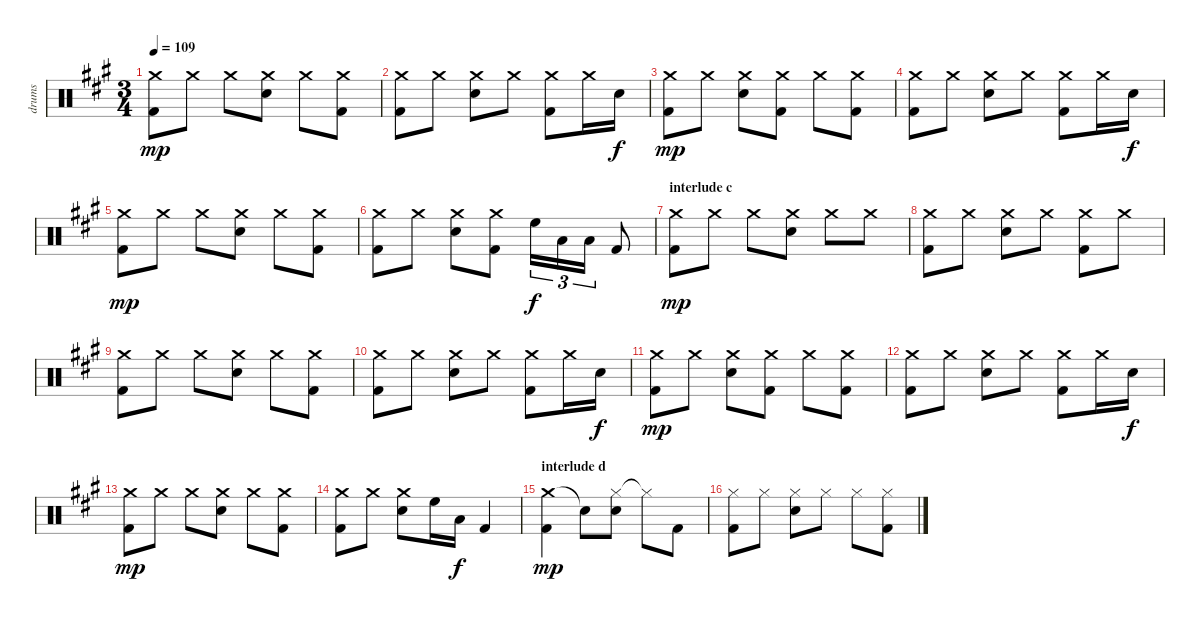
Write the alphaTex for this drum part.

\track ("drums" "drums") {instrument percussion}
\staff {score}
\articulation defaults
\ts (3 4)
\tempo 109
\clef neutral
\ks a
("Crash medium (hit)" "Kick (hit) 2").8{dy mp} "Crash medium (hit)".8 "Crash medium (hit)".8 ("Crash medium (hit)" "Snare (hit) 2").8 "Crash medium (hit)".8 ("Crash medium (hit)" "Kick (hit) 2").8 |
("Crash medium (hit)" "Kick (hit) 2").8 "Crash medium (hit)".8 ("Crash medium (hit)" "Snare (hit) 2").8 "Crash medium (hit)".8 ("Crash medium (hit)" "Kick (hit) 2").8 "Crash medium (hit)".16 "Snare (hit) 2".16{dy f} |
("Crash medium (hit)" "Kick (hit) 2").8{dy mp} "Crash medium (hit)".8 ("Crash medium (hit)" "Snare (hit) 2").8 ("Crash medium (hit)" "Kick (hit) 2").8 "Crash medium (hit)".8 ("Crash medium (hit)" "Kick (hit) 2").8 |
("Crash medium (hit)" "Kick (hit) 2").8 "Crash medium (hit)".8 ("Crash medium (hit)" "Snare (hit) 2").8 "Crash medium (hit)".8 ("Crash medium (hit)" "Kick (hit) 2").8 "Crash medium (hit)".16 "Snare (hit) 2".16{dy f} |
("Crash medium (hit)" "Kick (hit) 2").8{dy mp} "Crash medium (hit)".8 "Crash medium (hit)".8 ("Crash medium (hit)" "Snare (hit) 2").8 "Crash medium (hit)".8 ("Crash medium (hit)" "Kick (hit) 2").8 |
("Crash medium (hit)" "Kick (hit) 2").8 "Crash medium (hit)".8 ("Crash medium (hit)" "Snare (hit) 2").8 ("Crash medium (hit)" "Kick (hit) 2").8 "High Floor Tom (hit)".16{tu (3 2) dy f} "Low Tom (hit)".16{tu (3 2)} "Low Tom (hit)".16{tu (3 2)} "Kick (hit) 2".8 |
\section ("" "interlude c")
("Crash medium (hit)" "Kick (hit) 2").8{dy mp} "Crash medium (hit)".8 "Crash medium (hit)".8 ("Crash medium (hit)" "Snare (hit) 2").8 "Crash medium (hit)".8 "Crash medium (hit)".8 |
("Crash medium (hit)" "Kick (hit) 2").8 "Crash medium (hit)".8 ("Crash medium (hit)" "Snare (hit) 2").8 "Crash medium (hit)".8 ("Crash medium (hit)" "Kick (hit) 2").8 "Crash medium (hit)".8 |
("Crash medium (hit)" "Kick (hit) 2").8 "Crash medium (hit)".8 "Crash medium (hit)".8 ("Crash medium (hit)" "Snare (hit) 2").8 "Crash medium (hit)".8 ("Crash medium (hit)" "Kick (hit) 2").8 |
("Crash medium (hit)" "Kick (hit) 2").8 "Crash medium (hit)".8 ("Crash medium (hit)" "Snare (hit) 2").8 "Crash medium (hit)".8 ("Crash medium (hit)" "Kick (hit) 2").8 "Crash medium (hit)".16 "Snare (hit) 2".16{dy f} |
("Crash medium (hit)" "Kick (hit) 2").8{dy mp} "Crash medium (hit)".8 ("Crash medium (hit)" "Snare (hit) 2").8 ("Crash medium (hit)" "Kick (hit) 2").8 "Crash medium (hit)".8 ("Crash medium (hit)" "Kick (hit) 2").8 |
("Crash medium (hit)" "Kick (hit) 2").8 "Crash medium (hit)".8 ("Crash medium (hit)" "Snare (hit) 2").8 "Crash medium (hit)".8 ("Crash medium (hit)" "Kick (hit) 2").8 "Crash medium (hit)".16 "Snare (hit) 2".16{dy f} |
("Crash medium (hit)" "Kick (hit) 2").8{dy mp} "Crash medium (hit)".8 "Crash medium (hit)".8 ("Crash medium (hit)" "Snare (hit) 2").8 "Crash medium (hit)".8 ("Crash medium (hit)" "Kick (hit) 2").8 |
("Crash medium (hit)" "Kick (hit) 2").8 "Crash medium (hit)".8 ("Crash medium (hit)" "Snare (hit) 2").8 "High Floor Tom (hit)".16 "Low Tom (hit)".16{dy f} "Kick (hit) 2".4 |
\section ("" "interlude d")
("Crash medium (hit)" "Kick (hit) 2").4{dy mp} "Snare (hit)"{t}.8 ("Hi-Hat (closed)" "Snare (hit) 2").8 "Hi-Hat (closed)"{t}.8 "Kick (hit) 2".8 |
("Hi-Hat (closed)" "Kick (hit) 2").8 "Hi-Hat (closed)".8 ("Hi-Hat (closed)" "Snare (hit) 2").8 "Hi-Hat (closed)".8 "Hi-Hat (closed)".8 ("Hi-Hat (closed)" "Kick (hit) 2").8
